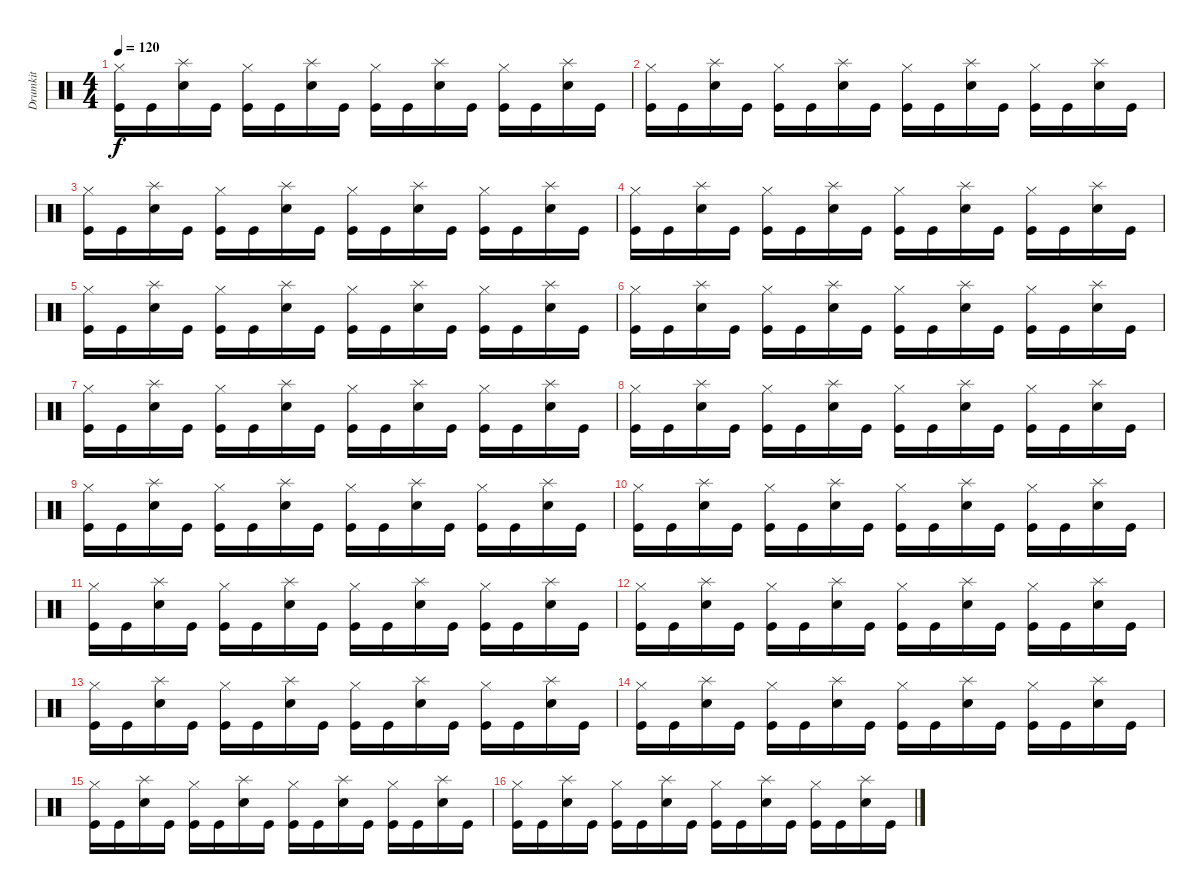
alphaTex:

\track ("Drumkit" "Drumkit") {instrument percussion}
\staff {score}
\articulation defaults
\ts (4 4)
\tempo 120
\clef neutral
\ks c
("Hi-Hat (closed)" "Kick (hit)").16{dy f} "Kick (hit)".16 ("Splash (hit)" "Electric Snare (hit)").16 "Kick (hit)".16 ("Hi-Hat (closed)" "Kick (hit)").16 "Kick (hit)".16 ("Splash (hit)" "Electric Snare (hit)").16 "Kick (hit)".16 ("Hi-Hat (closed)" "Kick (hit)").16 "Kick (hit)".16 ("Splash (hit)" "Electric Snare (hit)").16 "Kick (hit)".16 ("Hi-Hat (closed)" "Kick (hit)").16 "Kick (hit)".16 ("Splash (hit)" "Electric Snare (hit)").16 "Kick (hit)".16 |
("Hi-Hat (closed)" "Kick (hit)").16 "Kick (hit)".16 ("Splash (hit)" "Electric Snare (hit)").16 "Kick (hit)".16 ("Hi-Hat (closed)" "Kick (hit)").16 "Kick (hit)".16 ("Splash (hit)" "Electric Snare (hit)").16 "Kick (hit)".16 ("Hi-Hat (closed)" "Kick (hit)").16 "Kick (hit)".16 ("Splash (hit)" "Electric Snare (hit)").16 "Kick (hit)".16 ("Hi-Hat (closed)" "Kick (hit)").16 "Kick (hit)".16 ("Splash (hit)" "Electric Snare (hit)").16 "Kick (hit)".16 |
("Hi-Hat (closed)" "Kick (hit)").16 "Kick (hit)".16 ("Splash (hit)" "Electric Snare (hit)").16 "Kick (hit)".16 ("Hi-Hat (closed)" "Kick (hit)").16 "Kick (hit)".16 ("Splash (hit)" "Electric Snare (hit)").16 "Kick (hit)".16 ("Hi-Hat (closed)" "Kick (hit)").16 "Kick (hit)".16 ("Splash (hit)" "Electric Snare (hit)").16 "Kick (hit)".16 ("Hi-Hat (closed)" "Kick (hit)").16 "Kick (hit)".16 ("Splash (hit)" "Electric Snare (hit)").16 "Kick (hit)".16 |
("Hi-Hat (closed)" "Kick (hit)").16 "Kick (hit)".16 ("Splash (hit)" "Electric Snare (hit)").16 "Kick (hit)".16 ("Hi-Hat (closed)" "Kick (hit)").16 "Kick (hit)".16 ("Splash (hit)" "Electric Snare (hit)").16 "Kick (hit)".16 ("Hi-Hat (closed)" "Kick (hit)").16 "Kick (hit)".16 ("Splash (hit)" "Electric Snare (hit)").16 "Kick (hit)".16 ("Hi-Hat (closed)" "Kick (hit)").16 "Kick (hit)".16 ("Splash (hit)" "Electric Snare (hit)").16 "Kick (hit)".16 |
("Hi-Hat (closed)" "Kick (hit)").16 "Kick (hit)".16 ("Splash (hit)" "Electric Snare (hit)").16 "Kick (hit)".16 ("Hi-Hat (closed)" "Kick (hit)").16 "Kick (hit)".16 ("Splash (hit)" "Electric Snare (hit)").16 "Kick (hit)".16 ("Hi-Hat (closed)" "Kick (hit)").16 "Kick (hit)".16 ("Splash (hit)" "Electric Snare (hit)").16 "Kick (hit)".16 ("Hi-Hat (closed)" "Kick (hit)").16 "Kick (hit)".16 ("Splash (hit)" "Electric Snare (hit)").16 "Kick (hit)".16 |
("Hi-Hat (closed)" "Kick (hit)").16 "Kick (hit)".16 ("Splash (hit)" "Electric Snare (hit)").16 "Kick (hit)".16 ("Hi-Hat (closed)" "Kick (hit)").16 "Kick (hit)".16 ("Splash (hit)" "Electric Snare (hit)").16 "Kick (hit)".16 ("Hi-Hat (closed)" "Kick (hit)").16 "Kick (hit)".16 ("Splash (hit)" "Electric Snare (hit)").16 "Kick (hit)".16 ("Hi-Hat (closed)" "Kick (hit)").16 "Kick (hit)".16 ("Splash (hit)" "Electric Snare (hit)").16 "Kick (hit)".16 |
("Hi-Hat (closed)" "Kick (hit)").16 "Kick (hit)".16 ("Splash (hit)" "Electric Snare (hit)").16 "Kick (hit)".16 ("Hi-Hat (closed)" "Kick (hit)").16 "Kick (hit)".16 ("Splash (hit)" "Electric Snare (hit)").16 "Kick (hit)".16 ("Hi-Hat (closed)" "Kick (hit)").16 "Kick (hit)".16 ("Splash (hit)" "Electric Snare (hit)").16 "Kick (hit)".16 ("Hi-Hat (closed)" "Kick (hit)").16 "Kick (hit)".16 ("Splash (hit)" "Electric Snare (hit)").16 "Kick (hit)".16 |
("Hi-Hat (closed)" "Kick (hit)").16 "Kick (hit)".16 ("Splash (hit)" "Electric Snare (hit)").16 "Kick (hit)".16 ("Hi-Hat (closed)" "Kick (hit)").16 "Kick (hit)".16 ("Splash (hit)" "Electric Snare (hit)").16 "Kick (hit)".16 ("Hi-Hat (closed)" "Kick (hit)").16 "Kick (hit)".16 ("Splash (hit)" "Electric Snare (hit)").16 "Kick (hit)".16 ("Hi-Hat (closed)" "Kick (hit)").16 "Kick (hit)".16 ("Splash (hit)" "Electric Snare (hit)").16 "Kick (hit)".16 |
("Hi-Hat (closed)" "Kick (hit)").16 "Kick (hit)".16 ("Splash (hit)" "Electric Snare (hit)").16 "Kick (hit)".16 ("Hi-Hat (closed)" "Kick (hit)").16 "Kick (hit)".16 ("Splash (hit)" "Electric Snare (hit)").16 "Kick (hit)".16 ("Hi-Hat (closed)" "Kick (hit)").16 "Kick (hit)".16 ("Splash (hit)" "Electric Snare (hit)").16 "Kick (hit)".16 ("Hi-Hat (closed)" "Kick (hit)").16 "Kick (hit)".16 ("Splash (hit)" "Electric Snare (hit)").16 "Kick (hit)".16 |
("Hi-Hat (closed)" "Kick (hit)").16 "Kick (hit)".16 ("Splash (hit)" "Electric Snare (hit)").16 "Kick (hit)".16 ("Hi-Hat (closed)" "Kick (hit)").16 "Kick (hit)".16 ("Splash (hit)" "Electric Snare (hit)").16 "Kick (hit)".16 ("Hi-Hat (closed)" "Kick (hit)").16 "Kick (hit)".16 ("Splash (hit)" "Electric Snare (hit)").16 "Kick (hit)".16 ("Hi-Hat (closed)" "Kick (hit)").16 "Kick (hit)".16 ("Splash (hit)" "Electric Snare (hit)").16 "Kick (hit)".16 |
("Hi-Hat (closed)" "Kick (hit)").16 "Kick (hit)".16 ("Splash (hit)" "Electric Snare (hit)").16 "Kick (hit)".16 ("Hi-Hat (closed)" "Kick (hit)").16 "Kick (hit)".16 ("Splash (hit)" "Electric Snare (hit)").16 "Kick (hit)".16 ("Hi-Hat (closed)" "Kick (hit)").16 "Kick (hit)".16 ("Splash (hit)" "Electric Snare (hit)").16 "Kick (hit)".16 ("Hi-Hat (closed)" "Kick (hit)").16 "Kick (hit)".16 ("Splash (hit)" "Electric Snare (hit)").16 "Kick (hit)".16 |
("Hi-Hat (closed)" "Kick (hit)").16 "Kick (hit)".16 ("Splash (hit)" "Electric Snare (hit)").16 "Kick (hit)".16 ("Hi-Hat (closed)" "Kick (hit)").16 "Kick (hit)".16 ("Splash (hit)" "Electric Snare (hit)").16 "Kick (hit)".16 ("Hi-Hat (closed)" "Kick (hit)").16 "Kick (hit)".16 ("Splash (hit)" "Electric Snare (hit)").16 "Kick (hit)".16 ("Hi-Hat (closed)" "Kick (hit)").16 "Kick (hit)".16 ("Splash (hit)" "Electric Snare (hit)").16 "Kick (hit)".16 |
("Hi-Hat (closed)" "Kick (hit)").16 "Kick (hit)".16 ("Splash (hit)" "Electric Snare (hit)").16 "Kick (hit)".16 ("Hi-Hat (closed)" "Kick (hit)").16 "Kick (hit)".16 ("Splash (hit)" "Electric Snare (hit)").16 "Kick (hit)".16 ("Hi-Hat (closed)" "Kick (hit)").16 "Kick (hit)".16 ("Splash (hit)" "Electric Snare (hit)").16 "Kick (hit)".16 ("Hi-Hat (closed)" "Kick (hit)").16 "Kick (hit)".16 ("Splash (hit)" "Electric Snare (hit)").16 "Kick (hit)".16 |
("Hi-Hat (closed)" "Kick (hit)").16 "Kick (hit)".16 ("Splash (hit)" "Electric Snare (hit)").16 "Kick (hit)".16 ("Hi-Hat (closed)" "Kick (hit)").16 "Kick (hit)".16 ("Splash (hit)" "Electric Snare (hit)").16 "Kick (hit)".16 ("Hi-Hat (closed)" "Kick (hit)").16 "Kick (hit)".16 ("Splash (hit)" "Electric Snare (hit)").16 "Kick (hit)".16 ("Hi-Hat (closed)" "Kick (hit)").16 "Kick (hit)".16 ("Splash (hit)" "Electric Snare (hit)").16 "Kick (hit)".16 |
("Hi-Hat (closed)" "Kick (hit)").16 "Kick (hit)".16 ("Splash (hit)" "Electric Snare (hit)").16 "Kick (hit)".16 ("Hi-Hat (closed)" "Kick (hit)").16 "Kick (hit)".16 ("Splash (hit)" "Electric Snare (hit)").16 "Kick (hit)".16 ("Hi-Hat (closed)" "Kick (hit)").16 "Kick (hit)".16 ("Splash (hit)" "Electric Snare (hit)").16 "Kick (hit)".16 ("Hi-Hat (closed)" "Kick (hit)").16 "Kick (hit)".16 ("Splash (hit)" "Electric Snare (hit)").16 "Kick (hit)".16 |
("Hi-Hat (closed)" "Kick (hit)").16 "Kick (hit)".16 ("Splash (hit)" "Electric Snare (hit)").16 "Kick (hit)".16 ("Hi-Hat (closed)" "Kick (hit)").16 "Kick (hit)".16 ("Splash (hit)" "Electric Snare (hit)").16 "Kick (hit)".16 ("Hi-Hat (closed)" "Kick (hit)").16 "Kick (hit)".16 ("Splash (hit)" "Electric Snare (hit)").16 "Kick (hit)".16 ("Hi-Hat (closed)" "Kick (hit)").16 "Kick (hit)".16 ("Splash (hit)" "Electric Snare (hit)").16 "Kick (hit)".16
